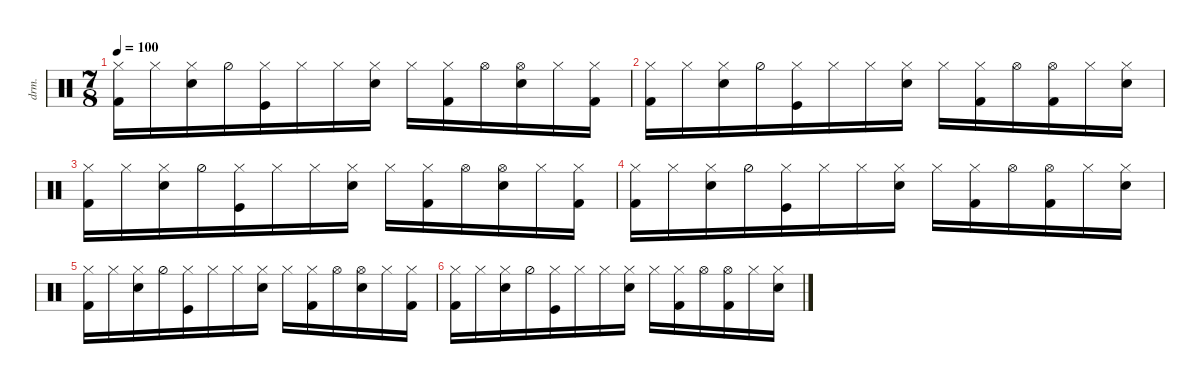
\defaultSystemsLayout 4
\hideDynamics
\bracketExtendMode nobrackets
\otherSystemsTrackNameOrientation horizontal
\track ("Drumkit" "drm.") {instrument percussion}
\staff {score}
\articulation defaults
\ts (7 8)
\tempo 100
\clef neutral
\ks c
("Hi-Hat (closed)" "Kick (hit) 2").16{dy mf beam Down} "Hi-Hat (closed)".16{beam Down} ("Hi-Hat (closed)" "Snare (hit) 2").16{beam Down} "Hi-Hat (half)".16{beam Down} ("Hi-Hat (closed)" "Kick (hit)").16{beam Down} "Hi-Hat (closed)".16{beam Down} "Hi-Hat (closed)".16{beam Down} ("Hi-Hat (closed)" "Snare (hit) 2").16{beam Down} "Hi-Hat (closed)".16{beam Down} ("Hi-Hat (closed)" "Kick (hit) 2").16{beam Down} "Hi-Hat (open)".16{beam Down} ("Hi-Hat (open)" "Snare (hit) 2").16{beam Down} "Hi-Hat (closed)".16{beam Down} ("Hi-Hat (closed)" "Kick (hit) 2").16{beam Down} |
("Hi-Hat (closed)" "Kick (hit) 2").16{beam Down} "Hi-Hat (closed)".16{beam Down} ("Hi-Hat (closed)" "Snare (hit) 2").16{beam Down} "Hi-Hat (half)".16{beam Down} ("Hi-Hat (closed)" "Kick (hit)").16{beam Down} "Hi-Hat (closed)".16{beam Down} "Hi-Hat (closed)".16{beam Down} ("Hi-Hat (closed)" "Snare (hit) 2").16{beam Down} "Hi-Hat (closed)".16{beam Down} ("Hi-Hat (closed)" "Kick (hit) 2").16{beam Down} "Hi-Hat (open)".16{beam Down} ("Hi-Hat (open)" "Kick (hit) 2").16{beam Down} "Hi-Hat (closed)".16{beam Down} ("Hi-Hat (closed)" "Snare (hit) 2").16{beam Down} |
("Hi-Hat (closed)" "Kick (hit) 2").16{beam Down} "Hi-Hat (closed)".16{beam Down} ("Hi-Hat (closed)" "Snare (hit) 2").16{beam Down} "Hi-Hat (half)".16{beam Down} ("Hi-Hat (closed)" "Kick (hit)").16{beam Down} "Hi-Hat (closed)".16{beam Down} "Hi-Hat (closed)".16{beam Down} ("Hi-Hat (closed)" "Snare (hit) 2").16{beam Down} "Hi-Hat (closed)".16{beam Down} ("Hi-Hat (closed)" "Kick (hit) 2").16{beam Down} "Hi-Hat (open)".16{beam Down} ("Hi-Hat (open)" "Snare (hit) 2").16{beam Down} "Hi-Hat (closed)".16{beam Down} ("Hi-Hat (closed)" "Kick (hit) 2").16{beam Down} |
("Hi-Hat (closed)" "Kick (hit) 2").16{beam Down} "Hi-Hat (closed)".16{beam Down} ("Hi-Hat (closed)" "Snare (hit) 2").16{beam Down} "Hi-Hat (half)".16{beam Down} ("Hi-Hat (closed)" "Kick (hit)").16{beam Down} "Hi-Hat (closed)".16{beam Down} "Hi-Hat (closed)".16{beam Down} ("Hi-Hat (closed)" "Snare (hit) 2").16{beam Down} "Hi-Hat (closed)".16{beam Down} ("Hi-Hat (closed)" "Kick (hit) 2").16{beam Down} "Hi-Hat (open)".16{beam Down} ("Hi-Hat (open)" "Kick (hit) 2").16{beam Down} "Hi-Hat (closed)".16{beam Down} ("Hi-Hat (closed)" "Snare (hit) 2").16{beam Down} |
("Hi-Hat (closed)" "Kick (hit) 2").16{beam Down} "Hi-Hat (closed)".16{beam Down} ("Hi-Hat (closed)" "Snare (hit) 2").16{beam Down} "Hi-Hat (half)".16{beam Down} ("Hi-Hat (closed)" "Kick (hit)").16{beam Down} "Hi-Hat (closed)".16{beam Down} "Hi-Hat (closed)".16{beam Down} ("Hi-Hat (closed)" "Snare (hit) 2").16{beam Down} "Hi-Hat (closed)".16{beam Down} ("Hi-Hat (closed)" "Kick (hit) 2").16{beam Down} "Hi-Hat (open)".16{beam Down} ("Hi-Hat (open)" "Snare (hit) 2").16{beam Down} "Hi-Hat (closed)".16{beam Down} ("Hi-Hat (closed)" "Kick (hit) 2").16{beam Down} |
("Hi-Hat (closed)" "Kick (hit) 2").16{beam Down} "Hi-Hat (closed)".16{beam Down} ("Hi-Hat (closed)" "Snare (hit) 2").16{beam Down} "Hi-Hat (half)".16{beam Down} ("Hi-Hat (closed)" "Kick (hit)").16{beam Down} "Hi-Hat (closed)".16{beam Down} "Hi-Hat (closed)".16{beam Down} ("Hi-Hat (closed)" "Snare (hit) 2").16{beam Down} "Hi-Hat (closed)".16{beam Down} ("Hi-Hat (closed)" "Kick (hit) 2").16{beam Down} "Hi-Hat (open)".16{beam Down} ("Hi-Hat (open)" "Kick (hit) 2").16{beam Down} "Hi-Hat (closed)".16{beam Down} ("Hi-Hat (closed)" "Snare (hit) 2").16{beam Down}
